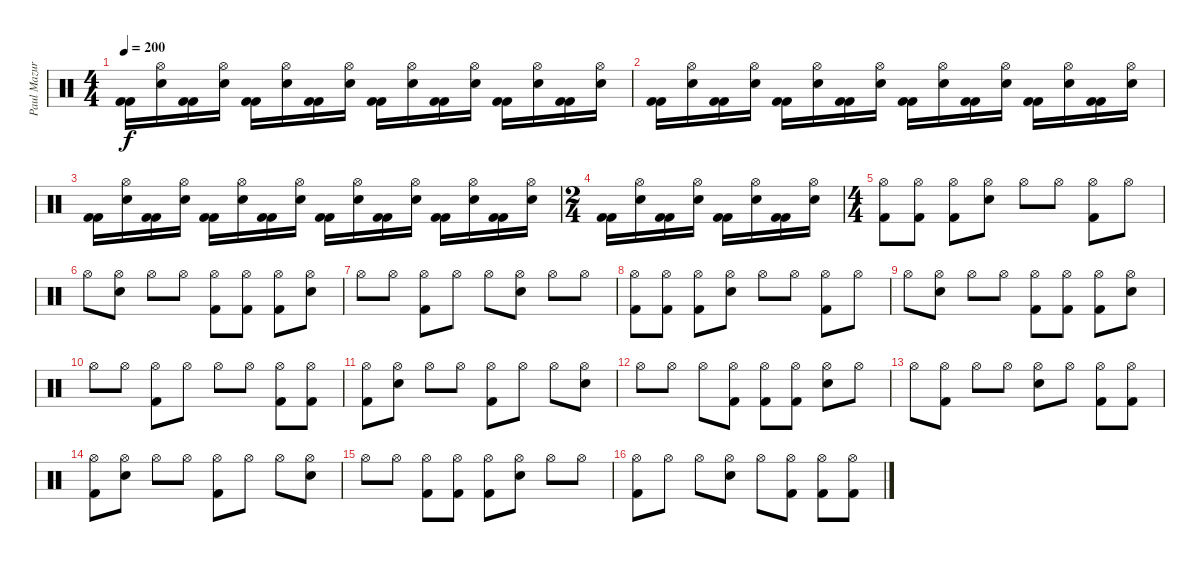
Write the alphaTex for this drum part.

\track ("Paul Mazurkiewicz" "Paul Mazur") {instrument percussion}
\staff {score}
\articulation defaults
\ts (4 4)
\tempo 200
\clef neutral
\ks c
("Kick (hit) 2" "Kick (hit) 2").16{dy f} ("Hi-Hat (open)" "Electric Snare (hit)").16 ("Kick (hit) 2" "Kick (hit) 2").16 ("Hi-Hat (open)" "Electric Snare (hit)").16 ("Kick (hit) 2" "Kick (hit) 2").16 ("Hi-Hat (open)" "Electric Snare (hit)").16 ("Kick (hit) 2" "Kick (hit) 2").16 ("Hi-Hat (open)" "Electric Snare (hit)").16 ("Kick (hit) 2" "Kick (hit) 2").16 ("Hi-Hat (open)" "Electric Snare (hit)").16 ("Kick (hit) 2" "Kick (hit) 2").16 ("Hi-Hat (open)" "Electric Snare (hit)").16 ("Kick (hit) 2" "Kick (hit) 2").16 ("Hi-Hat (open)" "Electric Snare (hit)").16 ("Kick (hit) 2" "Kick (hit) 2").16 ("Hi-Hat (open)" "Electric Snare (hit)").16 |
("Kick (hit) 2" "Kick (hit) 2").16 ("Hi-Hat (open)" "Electric Snare (hit)").16 ("Kick (hit) 2" "Kick (hit) 2").16 ("Hi-Hat (open)" "Electric Snare (hit)").16 ("Kick (hit) 2" "Kick (hit) 2").16 ("Hi-Hat (open)" "Electric Snare (hit)").16 ("Kick (hit) 2" "Kick (hit) 2").16 ("Hi-Hat (open)" "Electric Snare (hit)").16 ("Kick (hit) 2" "Kick (hit) 2").16 ("Hi-Hat (open)" "Electric Snare (hit)").16 ("Kick (hit) 2" "Kick (hit) 2").16 ("Hi-Hat (open)" "Electric Snare (hit)").16 ("Kick (hit) 2" "Kick (hit) 2").16 ("Hi-Hat (open)" "Electric Snare (hit)").16 ("Kick (hit) 2" "Kick (hit) 2").16 ("Hi-Hat (open)" "Electric Snare (hit)").16 |
("Kick (hit) 2" "Kick (hit) 2").16 ("Hi-Hat (open)" "Electric Snare (hit)").16 ("Kick (hit) 2" "Kick (hit) 2").16 ("Hi-Hat (open)" "Electric Snare (hit)").16 ("Kick (hit) 2" "Kick (hit) 2").16 ("Hi-Hat (open)" "Electric Snare (hit)").16 ("Kick (hit) 2" "Kick (hit) 2").16 ("Hi-Hat (open)" "Electric Snare (hit)").16 ("Kick (hit) 2" "Kick (hit) 2").16 ("Hi-Hat (open)" "Electric Snare (hit)").16 ("Kick (hit) 2" "Kick (hit) 2").16 ("Hi-Hat (open)" "Electric Snare (hit)").16 ("Kick (hit) 2" "Kick (hit) 2").16 ("Hi-Hat (open)" "Electric Snare (hit)").16 ("Kick (hit) 2" "Kick (hit) 2").16 ("Hi-Hat (open)" "Electric Snare (hit)").16 |
\ts (2 4)
("Kick (hit) 2" "Kick (hit) 2").16 ("Hi-Hat (open)" "Electric Snare (hit)").16 ("Kick (hit) 2" "Kick (hit) 2").16 ("Hi-Hat (open)" "Electric Snare (hit)").16 ("Kick (hit) 2" "Kick (hit) 2").16 ("Hi-Hat (open)" "Electric Snare (hit)").16 ("Kick (hit) 2" "Kick (hit) 2").16 ("Hi-Hat (open)" "Electric Snare (hit)").16 |
\ts (4 4)
("Hi-Hat (open)" "Kick (hit) 2").8 ("Hi-Hat (open)" "Kick (hit) 2").8 ("Hi-Hat (open)" "Kick (hit) 2").8 ("Hi-Hat (open)" "Electric Snare (hit)").8 "Hi-Hat (open)".8 "Hi-Hat (open)".8 ("Hi-Hat (open)" "Kick (hit) 2").8 "Hi-Hat (open)".8 |
"Hi-Hat (open)".8 ("Hi-Hat (open)" "Electric Snare (hit)").8 "Hi-Hat (open)".8 "Hi-Hat (open)".8 ("Hi-Hat (open)" "Kick (hit) 2").8 ("Hi-Hat (open)" "Kick (hit) 2").8 ("Hi-Hat (open)" "Kick (hit) 2").8 ("Hi-Hat (open)" "Electric Snare (hit)").8 |
"Hi-Hat (open)".8 "Hi-Hat (open)".8 ("Hi-Hat (open)" "Kick (hit) 2").8 "Hi-Hat (open)".8 "Hi-Hat (open)".8 ("Hi-Hat (open)" "Electric Snare (hit)").8 "Hi-Hat (open)".8 "Hi-Hat (open)".8 |
("Hi-Hat (open)" "Kick (hit) 2").8 ("Hi-Hat (open)" "Kick (hit) 2").8 ("Hi-Hat (open)" "Kick (hit) 2").8 ("Hi-Hat (open)" "Electric Snare (hit)").8 "Hi-Hat (open)".8 "Hi-Hat (open)".8 ("Hi-Hat (open)" "Kick (hit) 2").8 "Hi-Hat (open)".8 |
"Hi-Hat (open)".8 ("Hi-Hat (open)" "Electric Snare (hit)").8 "Hi-Hat (open)".8 "Hi-Hat (open)".8 ("Hi-Hat (open)" "Kick (hit) 2").8 ("Hi-Hat (open)" "Kick (hit) 2").8 ("Hi-Hat (open)" "Kick (hit) 2").8 ("Hi-Hat (open)" "Electric Snare (hit)").8 |
"Hi-Hat (open)".8 "Hi-Hat (open)".8 ("Hi-Hat (open)" "Kick (hit) 2").8 "Hi-Hat (open)".8 "Hi-Hat (open)".8 "Hi-Hat (open)".8 ("Hi-Hat (open)" "Kick (hit) 2").8 ("Hi-Hat (open)" "Kick (hit) 2").8 |
("Hi-Hat (open)" "Kick (hit) 2").8 ("Hi-Hat (open)" "Electric Snare (hit)").8 "Hi-Hat (open)".8 "Hi-Hat (open)".8 ("Hi-Hat (open)" "Kick (hit) 2").8 "Hi-Hat (open)".8 "Hi-Hat (open)".8 ("Hi-Hat (open)" "Electric Snare (hit)").8 |
"Hi-Hat (open)".8 "Hi-Hat (open)".8 "Hi-Hat (open)".8 ("Hi-Hat (open)" "Kick (hit) 2").8 ("Hi-Hat (open)" "Kick (hit) 2").8 ("Hi-Hat (open)" "Kick (hit) 2").8 ("Hi-Hat (open)" "Electric Snare (hit)").8 "Hi-Hat (open)".8 |
"Hi-Hat (open)".8 ("Hi-Hat (open)" "Kick (hit) 2").8 "Hi-Hat (open)".8 "Hi-Hat (open)".8 ("Hi-Hat (open)" "Electric Snare (hit)").8 "Hi-Hat (open)".8 ("Hi-Hat (open)" "Kick (hit) 2").8 ("Hi-Hat (open)" "Kick (hit) 2").8 |
("Hi-Hat (open)" "Kick (hit) 2").8 ("Hi-Hat (open)" "Electric Snare (hit)").8 "Hi-Hat (open)".8 "Hi-Hat (open)".8 ("Hi-Hat (open)" "Kick (hit) 2").8 "Hi-Hat (open)".8 "Hi-Hat (open)".8 ("Hi-Hat (open)" "Electric Snare (hit)").8 |
"Hi-Hat (open)".8 "Hi-Hat (open)".8 ("Hi-Hat (open)" "Kick (hit) 2").8 ("Hi-Hat (open)" "Kick (hit) 2").8 ("Hi-Hat (open)" "Kick (hit) 2").8 ("Hi-Hat (open)" "Electric Snare (hit)").8 "Hi-Hat (open)".8 "Hi-Hat (open)".8 |
("Hi-Hat (open)" "Kick (hit) 2").8 "Hi-Hat (open)".8 "Hi-Hat (open)".8 ("Hi-Hat (open)" "Electric Snare (hit)").8 "Hi-Hat (open)".8 ("Hi-Hat (open)" "Kick (hit) 2").8 ("Hi-Hat (open)" "Kick (hit) 2").8 ("Hi-Hat (open)" "Kick (hit) 2").8
